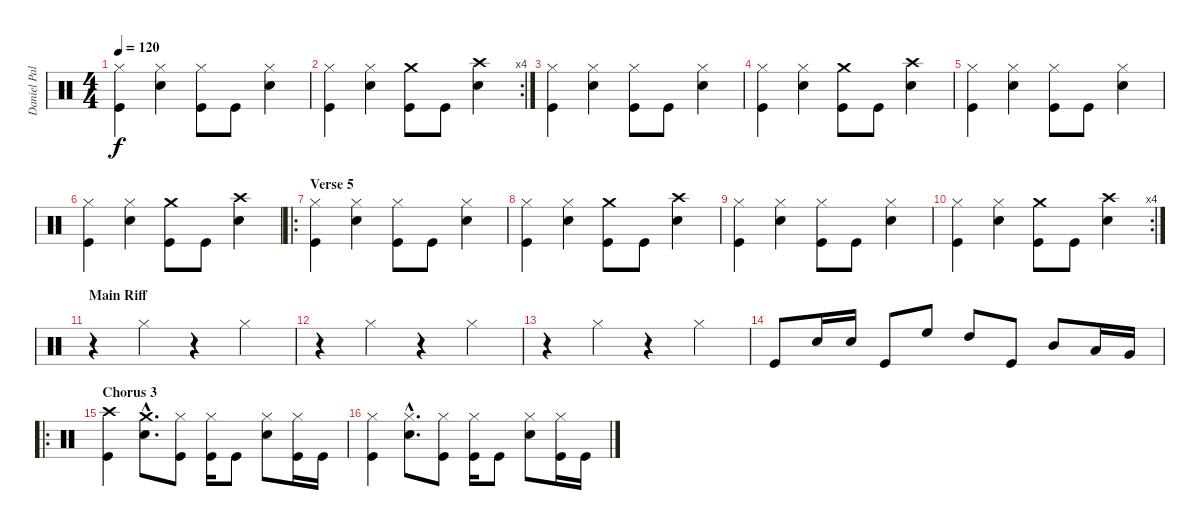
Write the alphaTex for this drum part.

\track ("Daniel Pal" "Daniel Pal") {instrument percussion}
\staff {score}
\articulation defaults
\ts (4 4)
\tempo 120
\clef neutral
\ks c
("Hi-Hat (closed)" "Kick (hit)").4{dy f} ("Hi-Hat (closed)" "Electric Snare (hit)").4 ("Hi-Hat (closed)" "Kick (hit)").8 "Kick (hit)".8 ("Hi-Hat (closed)" "Electric Snare (hit)").4 |
\rc 4
("Hi-Hat (closed)" "Kick (hit)").4 ("Hi-Hat (closed)" "Electric Snare (hit)").4 ("Crash medium (hit)" "Kick (hit)").8 "Kick (hit)".8 ("Crash high (hit)" "Electric Snare (hit)").4 |
("Hi-Hat (closed)" "Kick (hit)").4 ("Hi-Hat (closed)" "Electric Snare (hit)").4 ("Hi-Hat (closed)" "Kick (hit)").8 "Kick (hit)".8 ("Hi-Hat (closed)" "Electric Snare (hit)").4 |
("Hi-Hat (closed)" "Kick (hit)").4 ("Hi-Hat (closed)" "Electric Snare (hit)").4 ("Crash medium (hit)" "Kick (hit)").8 "Kick (hit)".8 ("Crash high (hit)" "Electric Snare (hit)").4 |
("Hi-Hat (closed)" "Kick (hit)").4 ("Hi-Hat (closed)" "Electric Snare (hit)").4 ("Hi-Hat (closed)" "Kick (hit)").8 "Kick (hit)".8 ("Hi-Hat (closed)" "Electric Snare (hit)").4 |
("Hi-Hat (closed)" "Kick (hit)").4 ("Hi-Hat (closed)" "Electric Snare (hit)").4 ("Crash medium (hit)" "Kick (hit)").8 "Kick (hit)".8 ("Crash high (hit)" "Electric Snare (hit)").4 |
\ro
\section ("" "Verse 5")
("Hi-Hat (closed)" "Kick (hit)").4 ("Hi-Hat (closed)" "Electric Snare (hit)").4 ("Hi-Hat (closed)" "Kick (hit)").8 "Kick (hit)".8 ("Hi-Hat (closed)" "Electric Snare (hit)").4 |
("Hi-Hat (closed)" "Kick (hit)").4 ("Hi-Hat (closed)" "Electric Snare (hit)").4 ("Crash medium (hit)" "Kick (hit)").8 "Kick (hit)".8 ("Crash high (hit)" "Electric Snare (hit)").4 |
("Hi-Hat (closed)" "Kick (hit)").4 ("Hi-Hat (closed)" "Electric Snare (hit)").4 ("Hi-Hat (closed)" "Kick (hit)").8 "Kick (hit)".8 ("Hi-Hat (closed)" "Electric Snare (hit)").4 |
\rc 4
("Hi-Hat (closed)" "Kick (hit)").4 ("Hi-Hat (closed)" "Electric Snare (hit)").4 ("Crash medium (hit)" "Kick (hit)").8 "Kick (hit)".8 ("Crash high (hit)" "Electric Snare (hit)").4 |
\section ("" "Main Riff")
r.4 "Hi-Hat (closed)".4 r.4 "Hi-Hat (closed)".4 |
r.4 "Hi-Hat (closed)".4 r.4 "Hi-Hat (closed)".4 |
r.4 "Hi-Hat (closed)".4 r.4 "Hi-Hat (closed)".4 |
"Kick (hit)".8 "Electric Snare (hit)".16 "Electric Snare (hit)".16 "Kick (hit)".8 "High Floor Tom (hit)".8 "High Tom (hit)".8 "Kick (hit)".8 "Mid Tom (hit)".8 "Low Tom (hit)".16 "Very Low Tom (hit)".16 |
\ro
\section ("" "Chorus 3")
("Crash high (hit)" "Kick (hit)").4 ("Crash medium (hit)"{hac} "Electric Snare (hit)"{hac}).8{d} ("Hi-Hat (closed)" "Kick (hit)").8 ("Hi-Hat (closed)" "Kick (hit)").16 "Kick (hit)".8 ("Hi-Hat (closed)" "Electric Snare (hit)").8 ("Hi-Hat (closed)" "Kick (hit)").16 "Kick (hit)".16 |
("Hi-Hat (closed)" "Kick (hit)").4 ("Hi-Hat (closed)"{hac} "Electric Snare (hit)"{hac}).8{d} ("Hi-Hat (closed)" "Kick (hit)").8 ("Hi-Hat (closed)" "Kick (hit)").16 "Kick (hit)".8 ("Hi-Hat (closed)" "Electric Snare (hit)").8 ("Hi-Hat (closed)" "Kick (hit)").16 "Kick (hit)".16
